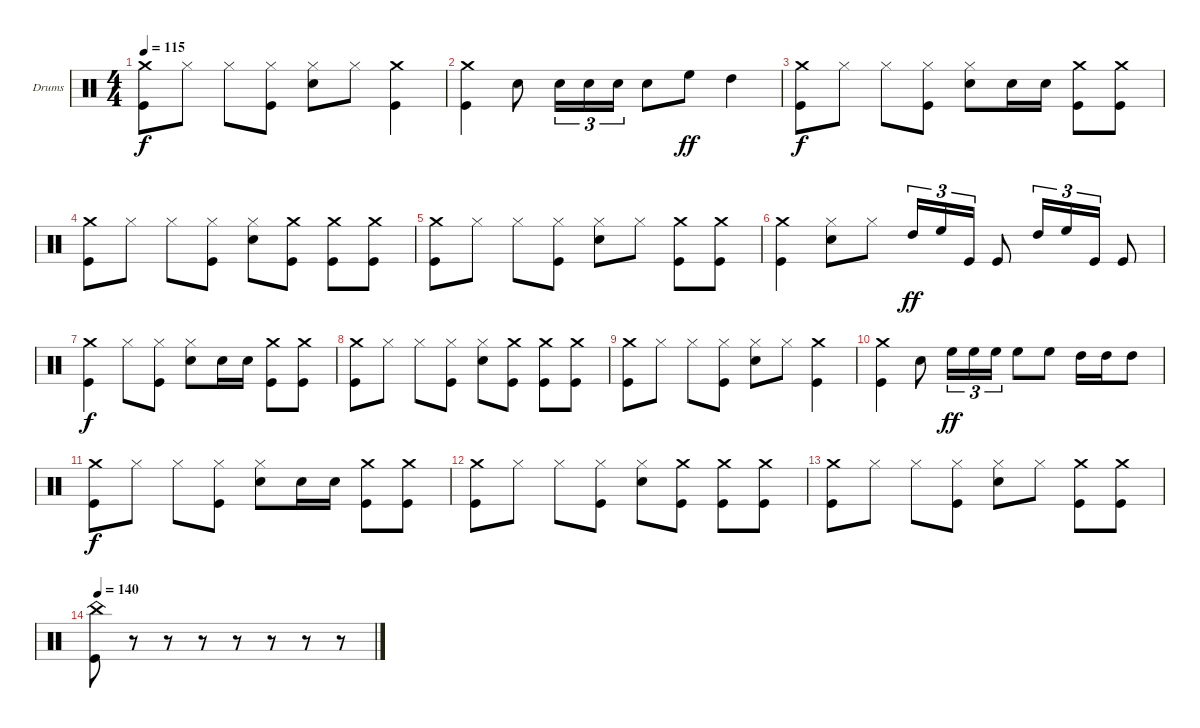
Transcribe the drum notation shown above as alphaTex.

\defaultSystemsLayout 4
\bracketExtendMode groupsimilarinstruments
\firstSystemTrackNameOrientation horizontal
\otherSystemsTrackNameOrientation horizontal
\track ("Drumkit" "Drums") {instrument percussion}
\staff {score}
\articulation defaults
\ts (4 4)
\tempo 115
\clef neutral
\ks c
("Crash medium (hit)" "Kick (hit)").8{dy f} "Hi-Hat (closed)".8 "Hi-Hat (closed)".8 ("Hi-Hat (closed)" "Kick (hit)").8 ("Hi-Hat (closed)" "Snare (hit) 2").8 "Hi-Hat (closed)".8 ("Crash medium (hit)" "Kick (hit)").4 |
("Crash medium (hit)" "Kick (hit)").4 "Snare (hit) 2".8 "Snare (hit) 2".16{tu (3 2)} "Snare (hit) 2".16{tu (3 2)} "Snare (hit) 2".16{tu (3 2)} "Snare (hit) 2".8 "High Floor Tom (hit)".8{dy ff} "High Tom (hit)".4 |
("Crash medium (hit)" "Kick (hit)").8{dy f} "Hi-Hat (closed)".8 "Hi-Hat (closed)".8 ("Hi-Hat (closed)" "Kick (hit)").8 ("Hi-Hat (closed)" "Snare (hit) 2").8 "Snare (hit) 2".16 "Snare (hit) 2".16 ("Crash medium (hit)" "Kick (hit)").8 ("Crash medium (hit)" "Kick (hit)").8 |
("Crash medium (hit)" "Kick (hit)").8 "Hi-Hat (closed)".8 "Hi-Hat (closed)".8 ("Hi-Hat (closed)" "Kick (hit)").8 ("Hi-Hat (closed)" "Snare (hit) 2").8 ("Crash medium (hit)" "Kick (hit)").8 ("Crash medium (hit)" "Kick (hit)").8 ("Crash medium (hit)" "Kick (hit)").8 |
("Crash medium (hit)" "Kick (hit)").8 "Hi-Hat (closed)".8 "Hi-Hat (closed)".8 ("Hi-Hat (closed)" "Kick (hit)").8 ("Hi-Hat (closed)" "Snare (hit) 2").8 "Hi-Hat (closed)".8 ("Crash medium (hit)" "Kick (hit)").8 ("Crash medium (hit)" "Kick (hit)").8 |
("Crash medium (hit)" "Kick (hit)").4 ("Hi-Hat (closed)" "Snare (hit) 2").8 "Hi-Hat (closed)".8 "High Tom (hit)".16{tu (3 2) dy ff} "High Floor Tom (hit)".16{tu (3 2)} "Kick (hit)".16{tu (3 2)} "Kick (hit)".8 "High Tom (hit)".16{tu (3 2)} "High Floor Tom (hit)".16{tu (3 2)} "Kick (hit)".16{tu (3 2)} "Kick (hit)".8 |
("Crash medium (hit)" "Kick (hit)").4{dy f} "Hi-Hat (closed)".8 ("Hi-Hat (closed)" "Kick (hit)").8 ("Hi-Hat (closed)" "Snare (hit) 2").8 "Snare (hit) 2".16 "Snare (hit) 2".16 ("Crash medium (hit)" "Kick (hit)").8 ("Crash medium (hit)" "Kick (hit)").8 |
("Crash medium (hit)" "Kick (hit)").8 "Hi-Hat (closed)".8 "Hi-Hat (closed)".8 ("Hi-Hat (closed)" "Kick (hit)").8 ("Hi-Hat (closed)" "Snare (hit) 2").8 ("Crash medium (hit)" "Kick (hit)").8 ("Crash medium (hit)" "Kick (hit)").8 ("Crash medium (hit)" "Kick (hit)").8 |
("Crash medium (hit)" "Kick (hit)").8 "Hi-Hat (closed)".8 "Hi-Hat (closed)".8 ("Hi-Hat (closed)" "Kick (hit)").8 ("Hi-Hat (closed)" "Snare (hit) 2").8 "Hi-Hat (closed)".8 ("Crash medium (hit)" "Kick (hit)").4 |
("Crash medium (hit)" "Kick (hit)").4 "Snare (hit) 2".8 "High Floor Tom (hit)".16{tu (3 2) dy ff} "High Floor Tom (hit)".16{tu (3 2)} "High Floor Tom (hit)".16{tu (3 2)} "High Floor Tom (hit)".8 "High Floor Tom (hit)".8 "High Tom (hit)".16 "High Tom (hit)".16 "High Tom (hit)".8 |
("Crash medium (hit)" "Kick (hit)").8{dy f} "Hi-Hat (closed)".8 "Hi-Hat (closed)".8 ("Hi-Hat (closed)" "Kick (hit)").8 ("Hi-Hat (closed)" "Snare (hit) 2").8 "Snare (hit) 2".16 "Snare (hit) 2".16 ("Crash medium (hit)" "Kick (hit)").8 ("Crash medium (hit)" "Kick (hit)").8 |
("Crash medium (hit)" "Kick (hit)").8 "Hi-Hat (closed)".8 "Hi-Hat (closed)".8 ("Hi-Hat (closed)" "Kick (hit)").8 ("Hi-Hat (closed)" "Snare (hit) 2").8 ("Crash medium (hit)" "Kick (hit)").8 ("Crash medium (hit)" "Kick (hit)").8 ("Crash medium (hit)" "Kick (hit)").8 |
("Crash medium (hit)" "Kick (hit)").8 "Hi-Hat (closed)".8 "Hi-Hat (closed)".8 ("Hi-Hat (closed)" "Kick (hit)").8 ("Hi-Hat (closed)" "Snare (hit) 2").8 "Hi-Hat (closed)".8 ("Crash medium (hit)" "Kick (hit)").8 ("Crash medium (hit)" "Kick (hit)").8 |
\tempo 140
("Kick (hit)" "China (hit)").8 r.8 r.8 r.8 r.8 r.8 r.8 r.8
